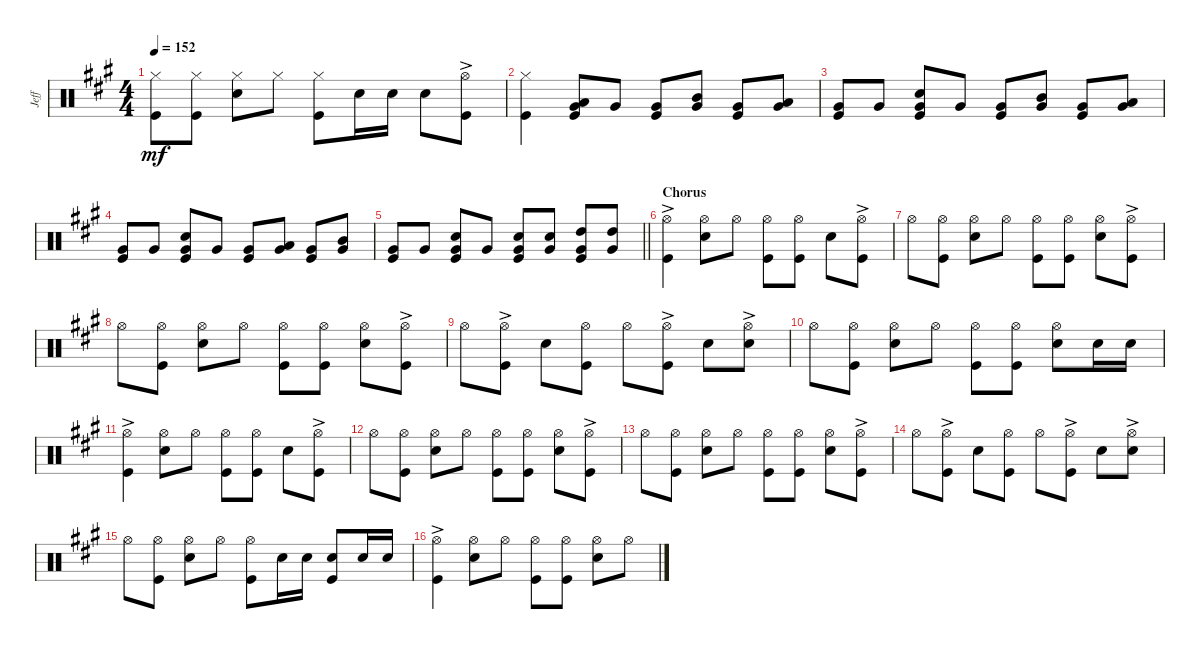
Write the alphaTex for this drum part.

\track ("Jeff" "Jeff") {instrument percussion}
\staff {score}
\articulation defaults
\ts (4 4)
\tempo 152
\clef neutral
\ks a
("Hi-Hat (closed)" "Kick (hit)").8{dy mf} ("Hi-Hat (closed)" "Kick (hit)").8 ("Hi-Hat (closed)" "Snare (hit) 2").8 "Hi-Hat (closed)".8 ("Hi-Hat (closed)" "Kick (hit)").8 "Snare (hit) 2".16 "Snare (hit) 2".16 "Snare (hit) 2".8 ("Hi-Hat (open)"{ac} "Kick (hit)").8 |
("Hi-Hat (closed)" "Kick (hit)").4 ("Very Low Tom (hit)" "Kick (hit)" "Low Tom (hit)").8 "Very Low Tom (hit)".8 ("Very Low Tom (hit)" "Kick (hit)").8 ("Mid Tom (hit)" "Very Low Tom (hit)").8 ("Very Low Tom (hit)" "Kick (hit)").8 ("Low Tom (hit)" "Very Low Tom (hit)").8 |
("Very Low Tom (hit)" "Kick (hit)").8 "Very Low Tom (hit)".8 ("Very Low Tom (hit)" "Kick (hit)" "Snare (hit) 2").8 "Very Low Tom (hit)".8 ("Very Low Tom (hit)" "Kick (hit)").8 ("Very Low Tom (hit)" "Mid Tom (hit)").8 ("Very Low Tom (hit)" "Kick (hit)").8 ("Very Low Tom (hit)" "Low Tom (hit)").8 |
("Very Low Tom (hit)" "Kick (hit)").8 "Very Low Tom (hit)".8 ("Snare (hit) 2" "Very Low Tom (hit)" "Kick (hit)").8 "Very Low Tom (hit)".8 ("Very Low Tom (hit)" "Kick (hit)").8 ("Very Low Tom (hit)" "Low Tom (hit)").8 ("Very Low Tom (hit)" "Kick (hit)").8 ("Very Low Tom (hit)" "Mid Tom (hit)").8 |
\barLineRight lightlight
("Very Low Tom (hit)" "Kick (hit)").8 "Very Low Tom (hit)".8 ("Snare (hit) 2" "Very Low Tom (hit)" "Kick (hit)").8 "Very Low Tom (hit)".8 ("Snare (hit) 2" "Very Low Tom (hit)" "Kick (hit)").8 ("Very Low Tom (hit)" "Snare (hit) 2").8 ("High Tom (hit)" "Very Low Tom (hit)" "Kick (hit)").8 ("High Tom (hit)" "Very Low Tom (hit)").8 |
\section ("" "Chorus")
("Hi-Hat (open)"{ac} "Kick (hit)").4 ("Hi-Hat (open)" "Snare (hit) 2").8 "Hi-Hat (open)".8 ("Hi-Hat (open)" "Kick (hit)").8 ("Hi-Hat (open)" "Kick (hit)").8 "Snare (hit) 2".8 ("Hi-Hat (open)" "Kick (hit)"{ac}).8 |
"Hi-Hat (open)".8 ("Hi-Hat (open)" "Kick (hit)").8 ("Hi-Hat (open)" "Snare (hit) 2").8 "Hi-Hat (open)".8 ("Hi-Hat (open)" "Kick (hit)").8 ("Hi-Hat (open)" "Kick (hit)").8 ("Hi-Hat (open)" "Snare (hit) 2").8 ("Hi-Hat (open)"{ac} "Kick (hit)").8 |
"Hi-Hat (open)".8 ("Hi-Hat (open)" "Kick (hit)").8 ("Hi-Hat (open)" "Snare (hit) 2").8 "Hi-Hat (open)".8 ("Hi-Hat (open)" "Kick (hit)").8 ("Hi-Hat (open)" "Kick (hit)").8 ("Hi-Hat (open)" "Snare (hit) 2").8 ("Hi-Hat (open)"{ac} "Kick (hit)").8 |
"Hi-Hat (open)".8 ("Hi-Hat (open)" "Kick (hit)"{ac}).8 "Snare (hit) 2".8 ("Hi-Hat (open)" "Kick (hit)").8 "Hi-Hat (open)".8 ("Hi-Hat (open)"{ac} "Kick (hit)").8 "Snare (hit) 2".8 ("Hi-Hat (open)"{ac} "Snare (hit) 2").8 |
"Hi-Hat (open)".8 ("Hi-Hat (open)" "Kick (hit)").8 ("Hi-Hat (open)" "Snare (hit) 2").8 "Hi-Hat (open)".8 ("Hi-Hat (open)" "Kick (hit)").8 ("Hi-Hat (open)" "Kick (hit)").8 ("Hi-Hat (open)" "Snare (hit) 2").8 "Snare (hit) 2".16 "Snare (hit) 2".16 |
("Hi-Hat (open)"{ac} "Kick (hit)").4 ("Hi-Hat (open)" "Snare (hit) 2").8 "Hi-Hat (open)".8 ("Hi-Hat (open)" "Kick (hit)").8 ("Hi-Hat (open)" "Kick (hit)").8 "Snare (hit) 2".8 ("Hi-Hat (open)" "Kick (hit)"{ac}).8 |
"Hi-Hat (open)".8 ("Hi-Hat (open)" "Kick (hit)").8 ("Hi-Hat (open)" "Snare (hit) 2").8 "Hi-Hat (open)".8 ("Hi-Hat (open)" "Kick (hit)").8 ("Hi-Hat (open)" "Kick (hit)").8 ("Hi-Hat (open)" "Snare (hit) 2").8 ("Hi-Hat (open)"{ac} "Kick (hit)").8 |
"Hi-Hat (open)".8 ("Hi-Hat (open)" "Kick (hit)").8 ("Hi-Hat (open)" "Snare (hit) 2").8 "Hi-Hat (open)".8 ("Hi-Hat (open)" "Kick (hit)").8 ("Hi-Hat (open)" "Kick (hit)").8 ("Hi-Hat (open)" "Snare (hit) 2").8 ("Hi-Hat (open)"{ac} "Kick (hit)").8 |
"Hi-Hat (open)".8 ("Hi-Hat (open)" "Kick (hit)"{ac}).8 "Snare (hit) 2".8 ("Hi-Hat (open)" "Kick (hit)").8 "Hi-Hat (open)".8 ("Hi-Hat (open)"{ac} "Kick (hit)").8 "Snare (hit) 2".8 ("Hi-Hat (open)"{ac} "Snare (hit) 2").8 |
"Hi-Hat (open)".8 ("Hi-Hat (open)" "Kick (hit)").8 ("Hi-Hat (open)" "Snare (hit) 2").8 "Hi-Hat (open)".8 ("Hi-Hat (open)" "Kick (hit)").8 "Snare (hit) 2".16 "Snare (hit) 2".16 ("Snare (hit) 2" "Kick (hit)").8 "Snare (hit) 2".16 "Snare (hit) 2".16 |
("Hi-Hat (open)"{ac} "Kick (hit)").4 ("Hi-Hat (open)" "Snare (hit) 2").8 "Hi-Hat (open)".8 ("Hi-Hat (open)" "Kick (hit)").8 ("Hi-Hat (open)" "Kick (hit)").8 ("Hi-Hat (open)" "Snare (hit) 2").8 "Hi-Hat (open)".8
